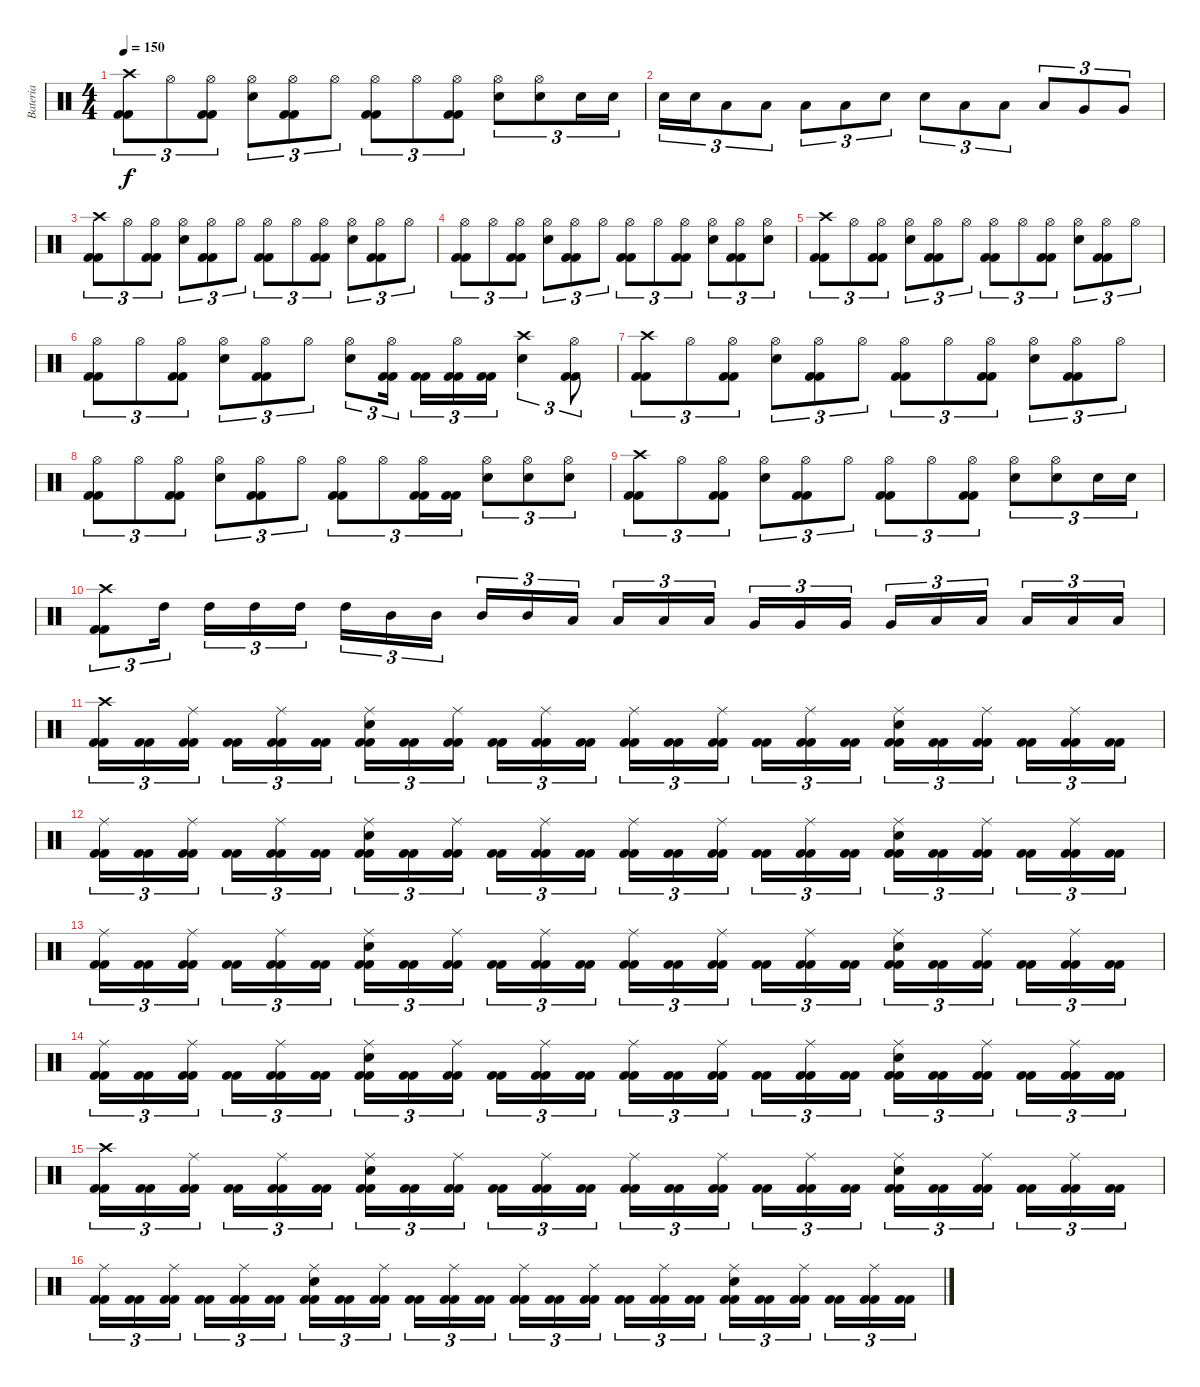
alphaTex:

\track ("Bateria" "Bateria") {instrument percussion}
\staff {score}
\articulation defaults
\ts (4 4)
\tempo 150
\clef neutral
\ks c
("Kick (hit) 2" "Kick (hit) 2" "Crash high (hit)").8{tu (3 2) dy f} "Hi-Hat (open)".8{tu (3 2)} ("Kick (hit) 2" "Kick (hit) 2" "Hi-Hat (open)").8{tu (3 2)} ("Snare (hit) 2" "Hi-Hat (open)").8{tu (3 2)} ("Kick (hit) 2" "Kick (hit) 2" "Hi-Hat (open)").8{tu (3 2)} "Hi-Hat (open)".8{tu (3 2)} ("Kick (hit) 2" "Kick (hit) 2" "Hi-Hat (open)").8{tu (3 2)} "Hi-Hat (open)".8{tu (3 2)} ("Kick (hit) 2" "Kick (hit) 2" "Hi-Hat (open)").8{tu (3 2)} ("Snare (hit) 2" "Hi-Hat (open)").8{tu (3 2)} ("Snare (hit) 2" "Hi-Hat (open)").8{tu (3 2)} "Snare (hit) 2".16{tu (3 2)} "Snare (hit) 2".16{tu (3 2)} |
"Snare (hit) 2".16{tu (3 2)} "Snare (hit) 2".16{tu (3 2)} "Low Tom (hit)".8{tu (3 2)} "Low Tom (hit)".8{tu (3 2)} "Low Tom (hit)".8{tu (3 2)} "Low Tom (hit)".8{tu (3 2)} "Snare (hit) 2".8{tu (3 2)} "Snare (hit) 2".8{tu (3 2)} "Low Tom (hit)".8{tu (3 2)} "Low Tom (hit)".8{tu (3 2)} "Low Tom (hit)".8{tu (3 2)} "Very Low Tom (hit)".8{tu (3 2)} "Very Low Tom (hit)".8{tu (3 2)} |
("Kick (hit) 2" "Kick (hit) 2" "Crash high (hit)").8{tu (3 2)} "Hi-Hat (open)".8{tu (3 2)} ("Kick (hit) 2" "Kick (hit) 2" "Hi-Hat (open)").8{tu (3 2)} ("Snare (hit) 2" "Hi-Hat (open)").8{tu (3 2)} ("Kick (hit) 2" "Kick (hit) 2" "Hi-Hat (open)").8{tu (3 2)} "Hi-Hat (open)".8{tu (3 2)} ("Kick (hit) 2" "Kick (hit) 2" "Hi-Hat (open)").8{tu (3 2)} "Hi-Hat (open)".8{tu (3 2)} ("Kick (hit) 2" "Kick (hit) 2" "Hi-Hat (open)").8{tu (3 2)} ("Snare (hit) 2" "Hi-Hat (open)").8{tu (3 2)} ("Kick (hit) 2" "Kick (hit) 2" "Hi-Hat (open)").8{tu (3 2)} "Hi-Hat (open)".8{tu (3 2)} |
("Kick (hit) 2" "Kick (hit) 2" "Hi-Hat (open)").8{tu (3 2)} "Hi-Hat (open)".8{tu (3 2)} ("Kick (hit) 2" "Kick (hit) 2" "Hi-Hat (open)").8{tu (3 2)} ("Snare (hit) 2" "Hi-Hat (open)").8{tu (3 2)} ("Kick (hit) 2" "Kick (hit) 2" "Hi-Hat (open)").8{tu (3 2)} "Hi-Hat (open)".8{tu (3 2)} ("Kick (hit) 2" "Kick (hit) 2" "Hi-Hat (open)").8{tu (3 2)} "Hi-Hat (open)".8{tu (3 2)} ("Kick (hit) 2" "Kick (hit) 2" "Hi-Hat (open)").8{tu (3 2)} ("Snare (hit) 2" "Hi-Hat (open)").8{tu (3 2)} ("Kick (hit) 2" "Kick (hit) 2" "Hi-Hat (open)").8{tu (3 2)} ("Snare (hit) 2" "Hi-Hat (open)").8{tu (3 2)} |
("Kick (hit) 2" "Kick (hit) 2" "Crash high (hit)").8{tu (3 2)} "Hi-Hat (open)".8{tu (3 2)} ("Kick (hit) 2" "Kick (hit) 2" "Hi-Hat (open)").8{tu (3 2)} ("Snare (hit) 2" "Hi-Hat (open)").8{tu (3 2)} ("Kick (hit) 2" "Kick (hit) 2" "Hi-Hat (open)").8{tu (3 2)} "Hi-Hat (open)".8{tu (3 2)} ("Kick (hit) 2" "Kick (hit) 2" "Hi-Hat (open)").8{tu (3 2)} "Hi-Hat (open)".8{tu (3 2)} ("Kick (hit) 2" "Kick (hit) 2" "Hi-Hat (open)").8{tu (3 2)} ("Snare (hit) 2" "Hi-Hat (open)").8{tu (3 2)} ("Kick (hit) 2" "Kick (hit) 2" "Hi-Hat (open)").8{tu (3 2)} "Hi-Hat (open)".8{tu (3 2)} |
("Kick (hit) 2" "Kick (hit) 2" "Hi-Hat (open)").8{tu (3 2)} "Hi-Hat (open)".8{tu (3 2)} ("Kick (hit) 2" "Kick (hit) 2" "Hi-Hat (open)").8{tu (3 2)} ("Snare (hit) 2" "Hi-Hat (open)").8{tu (3 2)} ("Kick (hit) 2" "Kick (hit) 2" "Hi-Hat (open)").8{tu (3 2)} "Hi-Hat (open)".8{tu (3 2)} ("Snare (hit) 2" "Hi-Hat (open)").8{tu (3 2)} ("Kick (hit) 2" "Kick (hit) 2" "Hi-Hat (open)").16{tu (3 2)} ("Kick (hit) 2" "Kick (hit) 2").16{tu (3 2)} ("Kick (hit) 2" "Kick (hit) 2" "Hi-Hat (open)").16{tu (3 2)} ("Kick (hit) 2" "Kick (hit) 2").16{tu (3 2)} ("Snare (hit) 2" "Crash high (hit)").4{tu (3 2)} ("Kick (hit) 2" "Kick (hit) 2" "Hi-Hat (open)").8{tu (3 2)} |
("Kick (hit) 2" "Kick (hit) 2" "Crash high (hit)").8{tu (3 2)} "Hi-Hat (open)".8{tu (3 2)} ("Kick (hit) 2" "Kick (hit) 2" "Hi-Hat (open)").8{tu (3 2)} ("Snare (hit) 2" "Hi-Hat (open)").8{tu (3 2)} ("Kick (hit) 2" "Kick (hit) 2" "Hi-Hat (open)").8{tu (3 2)} "Hi-Hat (open)".8{tu (3 2)} ("Kick (hit) 2" "Kick (hit) 2" "Hi-Hat (open)").8{tu (3 2)} "Hi-Hat (open)".8{tu (3 2)} ("Kick (hit) 2" "Kick (hit) 2" "Hi-Hat (open)").8{tu (3 2)} ("Snare (hit) 2" "Hi-Hat (open)").8{tu (3 2)} ("Kick (hit) 2" "Kick (hit) 2" "Hi-Hat (open)").8{tu (3 2)} "Hi-Hat (open)".8{tu (3 2)} |
("Kick (hit) 2" "Kick (hit) 2" "Hi-Hat (open)").8{tu (3 2)} "Hi-Hat (open)".8{tu (3 2)} ("Kick (hit) 2" "Kick (hit) 2" "Hi-Hat (open)").8{tu (3 2)} ("Snare (hit) 2" "Hi-Hat (open)").8{tu (3 2)} ("Kick (hit) 2" "Kick (hit) 2" "Hi-Hat (open)").8{tu (3 2)} "Hi-Hat (open)".8{tu (3 2)} ("Kick (hit) 2" "Kick (hit) 2" "Hi-Hat (open)").8{tu (3 2)} "Hi-Hat (open)".8{tu (3 2)} ("Kick (hit) 2" "Kick (hit) 2" "Hi-Hat (open)").16{tu (3 2)} ("Kick (hit) 2" "Kick (hit) 2").16{tu (3 2)} ("Snare (hit) 2" "Hi-Hat (open)").8{tu (3 2)} ("Snare (hit) 2" "Hi-Hat (open)").8{tu (3 2)} ("Snare (hit) 2" "Hi-Hat (open)").8{tu (3 2)} |
("Kick (hit) 2" "Kick (hit) 2" "Crash high (hit)").8{tu (3 2)} "Hi-Hat (open)".8{tu (3 2)} ("Kick (hit) 2" "Kick (hit) 2" "Hi-Hat (open)").8{tu (3 2)} ("Snare (hit) 2" "Hi-Hat (open)").8{tu (3 2)} ("Kick (hit) 2" "Kick (hit) 2" "Hi-Hat (open)").8{tu (3 2)} "Hi-Hat (open)".8{tu (3 2)} ("Kick (hit) 2" "Kick (hit) 2" "Hi-Hat (open)").8{tu (3 2)} "Hi-Hat (open)".8{tu (3 2)} ("Kick (hit) 2" "Kick (hit) 2" "Hi-Hat (open)").8{tu (3 2)} ("Snare (hit) 2" "Hi-Hat (open)").8{tu (3 2)} ("Snare (hit) 2" "Hi-Hat (open)").8{tu (3 2)} "Snare (hit) 2".16{tu (3 2)} "Snare (hit) 2".16{tu (3 2)} |
("Kick (hit) 2" "Kick (hit) 2" "Crash high (hit)").8{tu (3 2)} "High Tom (hit)".16{tu (3 2)} "High Tom (hit)".16{tu (3 2)} "High Tom (hit)".16{tu (3 2)} "High Tom (hit)".16{tu (3 2)} "High Tom (hit)".16{tu (3 2)} "Mid Tom (hit)".16{tu (3 2)} "Mid Tom (hit)".16{tu (3 2)} "Mid Tom (hit)".16{tu (3 2)} "Mid Tom (hit)".16{tu (3 2)} "Low Tom (hit)".16{tu (3 2)} "Low Tom (hit)".16{tu (3 2)} "Low Tom (hit)".16{tu (3 2)} "Low Tom (hit)".16{tu (3 2)} "Very Low Tom (hit)".16{tu (3 2)} "Very Low Tom (hit)".16{tu (3 2)} "Very Low Tom (hit)".16{tu (3 2)} "Very Low Tom (hit)".16{tu (3 2)} "Low Floor Tom (hit)".16{tu (3 2)} "Low Floor Tom (hit)".16{tu (3 2)} "Low Floor Tom (hit)".16{tu (3 2)} "Low Floor Tom (hit)".16{tu (3 2)} "Low Floor Tom (hit)".16{tu (3 2)} |
("Kick (hit) 2" "Kick (hit) 2" "Crash high (hit)").16{tu (3 2)} ("Kick (hit) 2" "Kick (hit) 2").16{tu (3 2)} ("Kick (hit) 2" "Kick (hit) 2" "Ride (middle)").16{tu (3 2)} ("Kick (hit) 2" "Kick (hit) 2").16{tu (3 2)} ("Kick (hit) 2" "Kick (hit) 2" "Ride (middle)").16{tu (3 2)} ("Kick (hit) 2" "Kick (hit) 2").16{tu (3 2)} ("Kick (hit) 2" "Kick (hit) 2" "Snare (hit) 2" "Ride (middle)").16{tu (3 2)} ("Kick (hit) 2" "Kick (hit) 2").16{tu (3 2)} ("Kick (hit) 2" "Kick (hit) 2" "Ride (middle)").16{tu (3 2)} ("Kick (hit) 2" "Kick (hit) 2").16{tu (3 2)} ("Kick (hit) 2" "Kick (hit) 2" "Ride (middle)").16{tu (3 2)} ("Kick (hit) 2" "Kick (hit) 2").16{tu (3 2)} ("Kick (hit) 2" "Kick (hit) 2" "Ride (middle)").16{tu (3 2)} ("Kick (hit) 2" "Kick (hit) 2").16{tu (3 2)} ("Kick (hit) 2" "Kick (hit) 2" "Ride (middle)").16{tu (3 2)} ("Kick (hit) 2" "Kick (hit) 2").16{tu (3 2)} ("Kick (hit) 2" "Kick (hit) 2" "Ride (middle)").16{tu (3 2)} ("Kick (hit) 2" "Kick (hit) 2").16{tu (3 2)} ("Kick (hit) 2" "Kick (hit) 2" "Snare (hit) 2" "Ride (middle)").16{tu (3 2)} ("Kick (hit) 2" "Kick (hit) 2").16{tu (3 2)} ("Kick (hit) 2" "Kick (hit) 2" "Ride (middle)").16{tu (3 2)} ("Kick (hit) 2" "Kick (hit) 2").16{tu (3 2)} ("Kick (hit) 2" "Kick (hit) 2" "Ride (middle)").16{tu (3 2)} ("Kick (hit) 2" "Kick (hit) 2").16{tu (3 2)} |
("Kick (hit) 2" "Kick (hit) 2" "Ride (middle)").16{tu (3 2)} ("Kick (hit) 2" "Kick (hit) 2").16{tu (3 2)} ("Kick (hit) 2" "Kick (hit) 2" "Ride (middle)").16{tu (3 2)} ("Kick (hit) 2" "Kick (hit) 2").16{tu (3 2)} ("Kick (hit) 2" "Kick (hit) 2" "Ride (middle)").16{tu (3 2)} ("Kick (hit) 2" "Kick (hit) 2").16{tu (3 2)} ("Kick (hit) 2" "Kick (hit) 2" "Snare (hit) 2" "Ride (middle)").16{tu (3 2)} ("Kick (hit) 2" "Kick (hit) 2").16{tu (3 2)} ("Kick (hit) 2" "Kick (hit) 2" "Ride (middle)").16{tu (3 2)} ("Kick (hit) 2" "Kick (hit) 2").16{tu (3 2)} ("Kick (hit) 2" "Kick (hit) 2" "Ride (middle)").16{tu (3 2)} ("Kick (hit) 2" "Kick (hit) 2").16{tu (3 2)} ("Kick (hit) 2" "Kick (hit) 2" "Ride (middle)").16{tu (3 2)} ("Kick (hit) 2" "Kick (hit) 2").16{tu (3 2)} ("Kick (hit) 2" "Kick (hit) 2" "Ride (middle)").16{tu (3 2)} ("Kick (hit) 2" "Kick (hit) 2").16{tu (3 2)} ("Kick (hit) 2" "Kick (hit) 2" "Ride (middle)").16{tu (3 2)} ("Kick (hit) 2" "Kick (hit) 2").16{tu (3 2)} ("Kick (hit) 2" "Kick (hit) 2" "Snare (hit) 2" "Ride (middle)").16{tu (3 2)} ("Kick (hit) 2" "Kick (hit) 2").16{tu (3 2)} ("Kick (hit) 2" "Kick (hit) 2" "Ride (middle)").16{tu (3 2)} ("Kick (hit) 2" "Kick (hit) 2").16{tu (3 2)} ("Kick (hit) 2" "Kick (hit) 2" "Ride (middle)").16{tu (3 2)} ("Kick (hit) 2" "Kick (hit) 2").16{tu (3 2)} |
("Kick (hit) 2" "Kick (hit) 2" "Ride (middle)").16{tu (3 2)} ("Kick (hit) 2" "Kick (hit) 2").16{tu (3 2)} ("Kick (hit) 2" "Kick (hit) 2" "Ride (middle)").16{tu (3 2)} ("Kick (hit) 2" "Kick (hit) 2").16{tu (3 2)} ("Kick (hit) 2" "Kick (hit) 2" "Ride (middle)").16{tu (3 2)} ("Kick (hit) 2" "Kick (hit) 2").16{tu (3 2)} ("Kick (hit) 2" "Kick (hit) 2" "Snare (hit) 2" "Ride (middle)").16{tu (3 2)} ("Kick (hit) 2" "Kick (hit) 2").16{tu (3 2)} ("Kick (hit) 2" "Kick (hit) 2" "Ride (middle)").16{tu (3 2)} ("Kick (hit) 2" "Kick (hit) 2").16{tu (3 2)} ("Kick (hit) 2" "Kick (hit) 2" "Ride (middle)").16{tu (3 2)} ("Kick (hit) 2" "Kick (hit) 2").16{tu (3 2)} ("Kick (hit) 2" "Kick (hit) 2" "Ride (middle)").16{tu (3 2)} ("Kick (hit) 2" "Kick (hit) 2").16{tu (3 2)} ("Kick (hit) 2" "Kick (hit) 2" "Ride (middle)").16{tu (3 2)} ("Kick (hit) 2" "Kick (hit) 2").16{tu (3 2)} ("Kick (hit) 2" "Kick (hit) 2" "Ride (middle)").16{tu (3 2)} ("Kick (hit) 2" "Kick (hit) 2").16{tu (3 2)} ("Kick (hit) 2" "Kick (hit) 2" "Snare (hit) 2" "Ride (middle)").16{tu (3 2)} ("Kick (hit) 2" "Kick (hit) 2").16{tu (3 2)} ("Kick (hit) 2" "Kick (hit) 2" "Ride (middle)").16{tu (3 2)} ("Kick (hit) 2" "Kick (hit) 2").16{tu (3 2)} ("Kick (hit) 2" "Kick (hit) 2" "Ride (middle)").16{tu (3 2)} ("Kick (hit) 2" "Kick (hit) 2").16{tu (3 2)} |
("Kick (hit) 2" "Kick (hit) 2" "Ride (middle)").16{tu (3 2)} ("Kick (hit) 2" "Kick (hit) 2").16{tu (3 2)} ("Kick (hit) 2" "Kick (hit) 2" "Ride (middle)").16{tu (3 2)} ("Kick (hit) 2" "Kick (hit) 2").16{tu (3 2)} ("Kick (hit) 2" "Kick (hit) 2" "Ride (middle)").16{tu (3 2)} ("Kick (hit) 2" "Kick (hit) 2").16{tu (3 2)} ("Kick (hit) 2" "Kick (hit) 2" "Snare (hit) 2" "Ride (middle)").16{tu (3 2)} ("Kick (hit) 2" "Kick (hit) 2").16{tu (3 2)} ("Kick (hit) 2" "Kick (hit) 2" "Ride (middle)").16{tu (3 2)} ("Kick (hit) 2" "Kick (hit) 2").16{tu (3 2)} ("Kick (hit) 2" "Kick (hit) 2" "Ride (middle)").16{tu (3 2)} ("Kick (hit) 2" "Kick (hit) 2").16{tu (3 2)} ("Kick (hit) 2" "Kick (hit) 2" "Ride (middle)").16{tu (3 2)} ("Kick (hit) 2" "Kick (hit) 2").16{tu (3 2)} ("Kick (hit) 2" "Kick (hit) 2" "Ride (middle)").16{tu (3 2)} ("Kick (hit) 2" "Kick (hit) 2").16{tu (3 2)} ("Kick (hit) 2" "Kick (hit) 2" "Ride (middle)").16{tu (3 2)} ("Kick (hit) 2" "Kick (hit) 2").16{tu (3 2)} ("Kick (hit) 2" "Kick (hit) 2" "Snare (hit) 2" "Ride (middle)").16{tu (3 2)} ("Kick (hit) 2" "Kick (hit) 2").16{tu (3 2)} ("Kick (hit) 2" "Kick (hit) 2" "Ride (middle)").16{tu (3 2)} ("Kick (hit) 2" "Kick (hit) 2").16{tu (3 2)} ("Kick (hit) 2" "Kick (hit) 2" "Ride (middle)").16{tu (3 2)} ("Kick (hit) 2" "Kick (hit) 2").16{tu (3 2)} |
("Kick (hit) 2" "Kick (hit) 2" "Crash high (hit)").16{tu (3 2)} ("Kick (hit) 2" "Kick (hit) 2").16{tu (3 2)} ("Kick (hit) 2" "Kick (hit) 2" "Ride (middle)").16{tu (3 2)} ("Kick (hit) 2" "Kick (hit) 2").16{tu (3 2)} ("Kick (hit) 2" "Kick (hit) 2" "Ride (middle)").16{tu (3 2)} ("Kick (hit) 2" "Kick (hit) 2").16{tu (3 2)} ("Kick (hit) 2" "Kick (hit) 2" "Snare (hit) 2" "Ride (middle)").16{tu (3 2)} ("Kick (hit) 2" "Kick (hit) 2").16{tu (3 2)} ("Kick (hit) 2" "Kick (hit) 2" "Ride (middle)").16{tu (3 2)} ("Kick (hit) 2" "Kick (hit) 2").16{tu (3 2)} ("Kick (hit) 2" "Kick (hit) 2" "Ride (middle)").16{tu (3 2)} ("Kick (hit) 2" "Kick (hit) 2").16{tu (3 2)} ("Kick (hit) 2" "Kick (hit) 2" "Ride (middle)").16{tu (3 2)} ("Kick (hit) 2" "Kick (hit) 2").16{tu (3 2)} ("Kick (hit) 2" "Kick (hit) 2" "Ride (middle)").16{tu (3 2)} ("Kick (hit) 2" "Kick (hit) 2").16{tu (3 2)} ("Kick (hit) 2" "Kick (hit) 2" "Ride (middle)").16{tu (3 2)} ("Kick (hit) 2" "Kick (hit) 2").16{tu (3 2)} ("Kick (hit) 2" "Kick (hit) 2" "Snare (hit) 2" "Ride (middle)").16{tu (3 2)} ("Kick (hit) 2" "Kick (hit) 2").16{tu (3 2)} ("Kick (hit) 2" "Kick (hit) 2" "Ride (middle)").16{tu (3 2)} ("Kick (hit) 2" "Kick (hit) 2").16{tu (3 2)} ("Kick (hit) 2" "Kick (hit) 2" "Ride (middle)").16{tu (3 2)} ("Kick (hit) 2" "Kick (hit) 2").16{tu (3 2)} |
("Kick (hit) 2" "Kick (hit) 2" "Ride (middle)").16{tu (3 2)} ("Kick (hit) 2" "Kick (hit) 2").16{tu (3 2)} ("Kick (hit) 2" "Kick (hit) 2" "Ride (middle)").16{tu (3 2)} ("Kick (hit) 2" "Kick (hit) 2").16{tu (3 2)} ("Kick (hit) 2" "Kick (hit) 2" "Ride (middle)").16{tu (3 2)} ("Kick (hit) 2" "Kick (hit) 2").16{tu (3 2)} ("Kick (hit) 2" "Kick (hit) 2" "Snare (hit) 2" "Ride (middle)").16{tu (3 2)} ("Kick (hit) 2" "Kick (hit) 2").16{tu (3 2)} ("Kick (hit) 2" "Kick (hit) 2" "Ride (middle)").16{tu (3 2)} ("Kick (hit) 2" "Kick (hit) 2").16{tu (3 2)} ("Kick (hit) 2" "Kick (hit) 2" "Ride (middle)").16{tu (3 2)} ("Kick (hit) 2" "Kick (hit) 2").16{tu (3 2)} ("Kick (hit) 2" "Kick (hit) 2" "Ride (middle)").16{tu (3 2)} ("Kick (hit) 2" "Kick (hit) 2").16{tu (3 2)} ("Kick (hit) 2" "Kick (hit) 2" "Ride (middle)").16{tu (3 2)} ("Kick (hit) 2" "Kick (hit) 2").16{tu (3 2)} ("Kick (hit) 2" "Kick (hit) 2" "Ride (middle)").16{tu (3 2)} ("Kick (hit) 2" "Kick (hit) 2").16{tu (3 2)} ("Kick (hit) 2" "Kick (hit) 2" "Snare (hit) 2" "Ride (middle)").16{tu (3 2)} ("Kick (hit) 2" "Kick (hit) 2").16{tu (3 2)} ("Kick (hit) 2" "Kick (hit) 2" "Ride (middle)").16{tu (3 2)} ("Kick (hit) 2" "Kick (hit) 2").16{tu (3 2)} ("Kick (hit) 2" "Kick (hit) 2" "Ride (middle)").16{tu (3 2)} ("Kick (hit) 2" "Kick (hit) 2").16{tu (3 2)}
